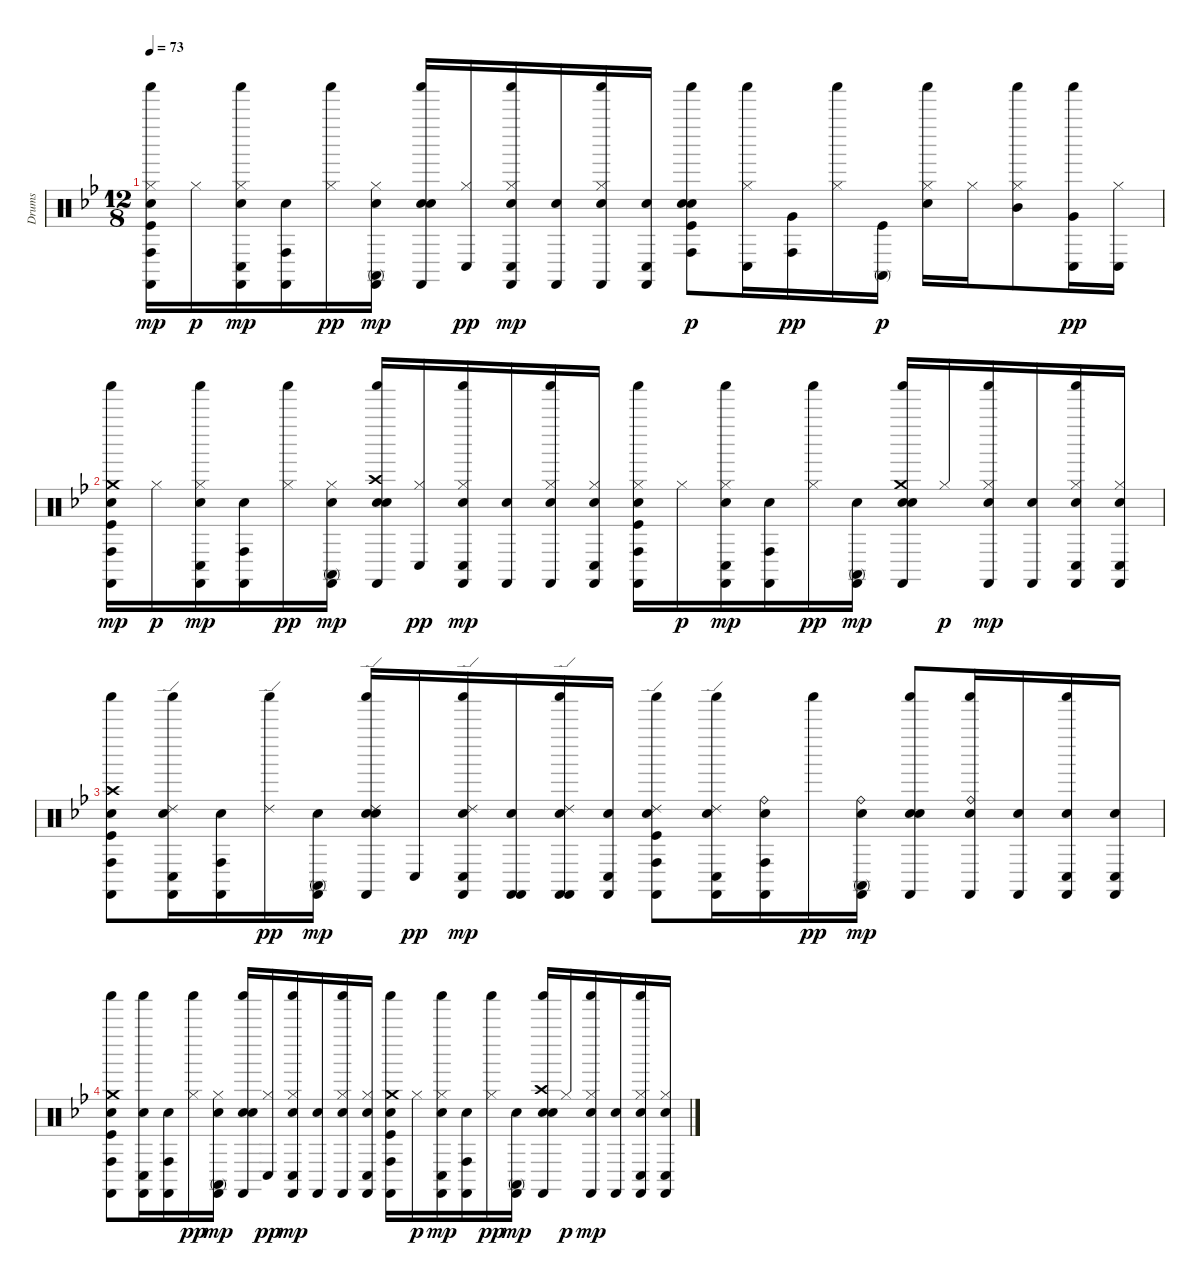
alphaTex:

\track ("Drums" "Drums") {instrument percussion}
\staff {score}
\articulation defaults
\ts (12 8)
\tempo 73
\clef neutral
\ks bb
("Kick (hit)" "Hand Clap (hit)" "Hi-Hat (closed)" "Conga high (hit)" "Shaker (hit)" "Castanets (hit)").16{dy mp} "Hi-Hat (closed)".16{dy p} ("Hand Clap (hit)" "Hi-Hat (closed)" "Conga low (hit)" "Shaker (hit)" "Castanets (hit)").16{dy mp} ("Hand Clap (hit)" "Conga high (hit)" "Castanets (hit)").16 ("Hi-Hat (closed)" "Shaker (hit)").16{dy pp} ("Hand Clap (hit)" "Hi-Hat (closed)" "Conga high (mute)" "Castanets (hit)").16{dy mp} ("Hand Clap (hit)" "Electric Snare (hit)" "Shaker (hit)" "Castanets (hit)").16 ("Hi-Hat (closed)" "Conga low (hit)").16{dy pp} ("Hand Clap (hit)" "Hi-Hat (closed)" "Conga low (hit)" "Shaker (hit)" "Castanets (hit)").16{dy mp} ("Hand Clap (hit)" "Castanets (hit)").16 ("Hand Clap (hit)" "Hi-Hat (closed)" "Shaker (hit)" "Castanets (hit)").16 ("Hand Clap (hit)" "Conga low (hit)" "Castanets (hit)").16 ("Kick (hit)" "Electric Snare (hit)" "Electric Snare (hit)" "Conga high (hit)" "Shaker (hit)").8{dy p} ("Hi-Hat (closed)" "Conga low (hit)" "Shaker (hit)").16 ("Very Low Tom (hit)" "Conga high (hit)").16{dy pp} ("Hi-Hat (closed)" "Shaker (hit)").16 ("Kick (hit)" "Conga high (mute)").16{dy p} ("Electric Snare (hit)" "Hi-Hat (closed)" "Shaker (hit)").16 "Hi-Hat (closed)".16 ("Hi-Hat (closed)" "Mid Tom (hit)" "Shaker (hit)").8 ("Very Low Tom (hit)" "Conga low (hit)" "Shaker (hit)").16{dy pp} ("Hi-Hat (closed)" "Conga low (hit)").16 |
("Kick (hit)" "Hand Clap (hit)" "Crash medium (hit)" "Conga high (hit)" "Shaker (hit)" "Castanets (hit)").16{dy mp} "Hi-Hat (closed)".16{dy p} ("Hand Clap (hit)" "Hi-Hat (closed)" "Conga low (hit)" "Shaker (hit)" "Castanets (hit)").16{dy mp} ("Hand Clap (hit)" "Conga high (hit)" "Castanets (hit)").16 ("Hi-Hat (closed)" "Shaker (hit)").16{dy pp} ("Hand Clap (hit)" "Hi-Hat (closed)" "Conga high (mute)" "Castanets (hit)").16{dy mp} ("Hand Clap (hit)" "Electric Snare (hit)" "Crash high (hit)" "Shaker (hit)" "Castanets (hit)").16 ("Hi-Hat (closed)" "Conga low (hit)").16{dy pp} ("Hand Clap (hit)" "Hi-Hat (closed)" "Conga low (hit)" "Shaker (hit)" "Castanets (hit)").16{dy mp} ("Hand Clap (hit)" "Castanets (hit)").16 ("Hand Clap (hit)" "Hi-Hat (closed)" "Shaker (hit)" "Castanets (hit)").16 ("Hand Clap (hit)" "Hi-Hat (closed)" "Conga low (hit)" "Castanets (hit)").16 ("Kick (hit)" "Hand Clap (hit)" "Hi-Hat (closed)" "Conga high (hit)" "Shaker (hit)" "Castanets (hit)").16 "Hi-Hat (closed)".16{dy p} ("Hand Clap (hit)" "Hi-Hat (closed)" "Conga low (hit)" "Shaker (hit)" "Castanets (hit)").16{dy mp} ("Hand Clap (hit)" "Conga high (hit)" "Castanets (hit)").16 ("Hi-Hat (closed)" "Shaker (hit)").16{dy pp} ("Hand Clap (hit)" "Conga high (mute)" "Castanets (hit)").16{dy mp} ("Hand Clap (hit)" "Electric Snare (hit)" "Crash medium (hit)" "Shaker (hit)" "Castanets (hit)").16 "Hi-Hat (closed)".16{dy p} ("Hand Clap (hit)" "Hi-Hat (closed)" "Shaker (hit)" "Castanets (hit)").16{dy mp} ("Hand Clap (hit)" "Castanets (hit)").16 ("Hand Clap (hit)" "Hi-Hat (closed)" "Conga low (hit)" "Shaker (hit)" "Castanets (hit)").16 ("Hand Clap (hit)" "Hi-Hat (closed)" "Conga low (hit)" "Castanets (hit)").16 |
("Kick (hit)" "Hand Clap (hit)" "Crash high (hit)" "Conga high (hit)" "Shaker (hit)" "Castanets (hit)").8 ("Hand Clap (hit)" "Ride (edge) 2" "Conga low (hit)" "Shaker (hit)" "Castanets (hit)").16 ("Hand Clap (hit)" "Conga high (hit)" "Castanets (hit)").16 ("Ride (edge) 2" "Shaker (hit)").16{dy pp} ("Hand Clap (hit)" "Conga high (mute)" "Castanets (hit)").16{dy mp} ("Hand Clap (hit)" "Electric Snare (hit)" "Ride (edge) 2" "Shaker (hit)" "Castanets (hit)").16 "Conga low (hit)".16{dy pp} ("Hand Clap (hit)" "Ride (edge) 2" "Conga low (hit)" "Shaker (hit)" "Castanets (hit)").16{dy mp} ("Hand Clap (hit)" "Castanets (hit)" "Castanets (hit)").16 ("Hand Clap (hit)" "Ride (edge) 2" "Shaker (hit)" "Castanets (hit)" "Castanets (hit)").16 ("Hand Clap (hit)" "Conga low (hit)" "Castanets (hit)").16 ("Kick (hit)" "Hand Clap (hit)" "Ride (edge) 2" "Conga high (hit)" "Shaker (hit)" "Castanets (hit)").8 ("Hand Clap (hit)" "Ride (edge) 2" "Conga low (hit)" "Shaker (hit)" "Castanets (hit)").16 ("Hand Clap (hit)" "Ride (bell)" "Conga high (hit)" "Castanets (hit)").16 "Shaker (hit)".16{dy pp} ("Hand Clap (hit)" "Ride (bell)" "Conga high (mute)" "Castanets (hit)").16{dy mp} ("Hand Clap (hit)" "Electric Snare (hit)" "Shaker (hit)" "Castanets (hit)").8 ("Hand Clap (hit)" "Ride (bell)" "Shaker (hit)" "Castanets (hit)").16 ("Hand Clap (hit)" "Castanets (hit)").16 ("Hand Clap (hit)" "Conga low (hit)" "Shaker (hit)" "Castanets (hit)").16 ("Hand Clap (hit)" "Conga low (hit)" "Castanets (hit)").16 |
("Kick (hit)" "Hand Clap (hit)" "Crash medium (hit)" "Conga high (hit)" "Shaker (hit)" "Castanets (hit)").8 ("Hand Clap (hit)" "Conga low (hit)" "Shaker (hit)" "Castanets (hit)").16 ("Hand Clap (hit)" "Conga high (hit)" "Castanets (hit)").16 ("Hi-Hat (closed)" "Shaker (hit)").16{dy pp} ("Hand Clap (hit)" "Hi-Hat (closed)" "Conga high (mute)" "Castanets (hit)").16{dy mp} ("Hand Clap (hit)" "Electric Snare (hit)" "Shaker (hit)" "Castanets (hit)").16 ("Hi-Hat (closed)" "Conga low (hit)").16{dy pp} ("Hand Clap (hit)" "Hi-Hat (closed)" "Conga low (hit)" "Shaker (hit)" "Castanets (hit)").16{dy mp} ("Hand Clap (hit)" "Castanets (hit)").16 ("Hand Clap (hit)" "Hi-Hat (closed)" "Shaker (hit)" "Castanets (hit)").16 ("Hand Clap (hit)" "Hi-Hat (closed)" "Conga low (hit)" "Castanets (hit)").16 ("Kick (hit)" "Hand Clap (hit)" "Crash medium (hit)" "Conga high (hit)" "Shaker (hit)" "Castanets (hit)").16 "Hi-Hat (closed)".16{dy p} ("Hand Clap (hit)" "Hi-Hat (closed)" "Conga low (hit)" "Shaker (hit)" "Castanets (hit)").16{dy mp} ("Hand Clap (hit)" "Conga high (hit)" "Castanets (hit)").16 ("Hi-Hat (closed)" "Shaker (hit)").16{dy pp} ("Hand Clap (hit)" "Conga high (mute)" "Castanets (hit)").16{dy mp} ("Hand Clap (hit)" "Electric Snare (hit)" "Crash high (hit)" "Shaker (hit)" "Castanets (hit)").16 "Hi-Hat (closed)".16{dy p} ("Hand Clap (hit)" "Hi-Hat (closed)" "Shaker (hit)" "Castanets (hit)").16{dy mp} ("Hand Clap (hit)" "Castanets (hit)").16 ("Hand Clap (hit)" "Hi-Hat (closed)" "Conga low (hit)" "Shaker (hit)" "Castanets (hit)").16 ("Hand Clap (hit)" "Hi-Hat (closed)" "Conga low (hit)" "Castanets (hit)").16
